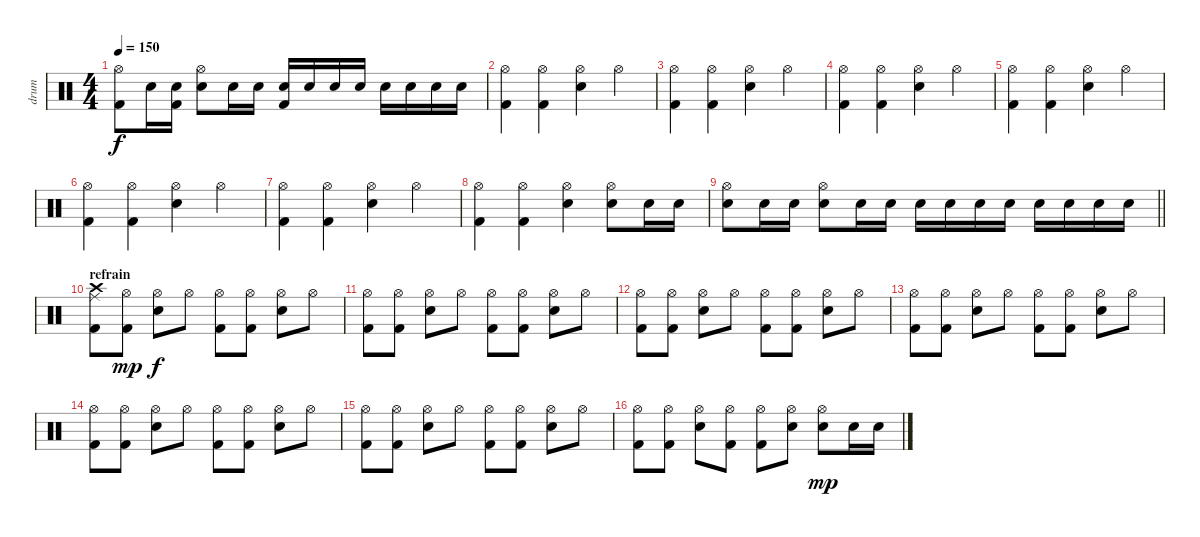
\track ("drum" "drum") {instrument percussion}
\staff {score}
\articulation defaults
\ts (4 4)
\tempo 150
\clef neutral
\ks c
("Hi-Hat (open)" "Kick (hit) 2").8{dy f} "Snare (hit) 2".16 ("Snare (hit) 2" "Kick (hit) 2").16 ("Hi-Hat (open)" "Snare (hit) 2").8 "Snare (hit) 2".16 "Snare (hit) 2".16 ("Snare (hit) 2" "Kick (hit) 2").16 "Snare (hit) 2".16 "Snare (hit) 2".16 "Snare (hit) 2".16 "Snare (hit) 2".16 "Snare (hit) 2".16 "Snare (hit) 2".16 "Snare (hit) 2".16 |
("Hi-Hat (open)" "Kick (hit) 2").4 ("Hi-Hat (open)" "Kick (hit) 2").4 ("Hi-Hat (open)" "Snare (hit) 2").4 "Hi-Hat (open)".4 |
("Hi-Hat (open)" "Kick (hit) 2").4 ("Hi-Hat (open)" "Kick (hit) 2").4 ("Hi-Hat (open)" "Snare (hit) 2").4 "Hi-Hat (open)".4 |
("Hi-Hat (open)" "Kick (hit) 2").4 ("Hi-Hat (open)" "Kick (hit) 2").4 ("Hi-Hat (open)" "Snare (hit) 2").4 "Hi-Hat (open)".4 |
("Hi-Hat (open)" "Kick (hit) 2").4 ("Hi-Hat (open)" "Kick (hit) 2").4 ("Hi-Hat (open)" "Snare (hit) 2").4 "Hi-Hat (open)".4 |
("Hi-Hat (open)" "Kick (hit) 2").4 ("Hi-Hat (open)" "Kick (hit) 2").4 ("Hi-Hat (open)" "Snare (hit) 2").4 "Hi-Hat (open)".4 |
("Hi-Hat (open)" "Kick (hit) 2").4 ("Hi-Hat (open)" "Kick (hit) 2").4 ("Hi-Hat (open)" "Snare (hit) 2").4 "Hi-Hat (open)".4 |
("Hi-Hat (open)" "Kick (hit) 2").4 ("Hi-Hat (open)" "Kick (hit) 2").4 ("Hi-Hat (open)" "Snare (hit) 2").4 ("Hi-Hat (open)" "Snare (hit) 2").8 "Snare (hit) 2".16 "Snare (hit) 2".16 |
\barLineRight lightlight
("Hi-Hat (open)" "Snare (hit) 2").8 "Snare (hit) 2".16 "Snare (hit) 2".16 ("Hi-Hat (open)" "Snare (hit) 2").8 "Snare (hit) 2".16 "Snare (hit) 2".16 "Snare (hit) 2".16 "Snare (hit) 2".16 "Snare (hit) 2".16 "Snare (hit) 2".16 "Snare (hit) 2".16 "Snare (hit) 2".16 "Snare (hit) 2".16 "Snare (hit) 2".16 |
\section ("" "refrain")
("Ride (middle)" "Crash high (hit)" "Kick (hit) 2").8 ("Hi-Hat (open)" "Kick (hit) 2").8{dy mp} ("Hi-Hat (open)" "Snare (hit) 2").8{dy f} "Hi-Hat (open)".8 ("Hi-Hat (open)" "Kick (hit) 2").8 ("Hi-Hat (open)" "Kick (hit) 2").8 ("Hi-Hat (open)" "Snare (hit) 2").8 "Hi-Hat (open)".8 |
("Hi-Hat (open)" "Kick (hit) 2").8 ("Hi-Hat (open)" "Kick (hit) 2").8 ("Hi-Hat (open)" "Snare (hit) 2").8 "Hi-Hat (open)".8 ("Hi-Hat (open)" "Kick (hit) 2").8 ("Hi-Hat (open)" "Kick (hit) 2").8 ("Hi-Hat (open)" "Snare (hit) 2").8 "Hi-Hat (open)".8 |
("Hi-Hat (open)" "Kick (hit) 2").8 ("Hi-Hat (open)" "Kick (hit) 2").8 ("Hi-Hat (open)" "Snare (hit) 2").8 "Hi-Hat (open)".8 ("Hi-Hat (open)" "Kick (hit) 2").8 ("Hi-Hat (open)" "Kick (hit) 2").8 ("Hi-Hat (open)" "Snare (hit) 2").8 "Hi-Hat (open)".8 |
("Hi-Hat (open)" "Kick (hit) 2").8 ("Hi-Hat (open)" "Kick (hit) 2").8 ("Hi-Hat (open)" "Snare (hit) 2").8 "Hi-Hat (open)".8 ("Hi-Hat (open)" "Kick (hit) 2").8 ("Hi-Hat (open)" "Kick (hit) 2").8 ("Hi-Hat (open)" "Snare (hit) 2").8 "Hi-Hat (open)".8 |
("Hi-Hat (open)" "Kick (hit) 2").8 ("Hi-Hat (open)" "Kick (hit) 2").8 ("Hi-Hat (open)" "Snare (hit) 2").8 "Hi-Hat (open)".8 ("Hi-Hat (open)" "Kick (hit) 2").8 ("Hi-Hat (open)" "Kick (hit) 2").8 ("Hi-Hat (open)" "Snare (hit) 2").8 "Hi-Hat (open)".8 |
("Hi-Hat (open)" "Kick (hit) 2").8 ("Hi-Hat (open)" "Kick (hit) 2").8 ("Hi-Hat (open)" "Snare (hit) 2").8 "Hi-Hat (open)".8 ("Hi-Hat (open)" "Kick (hit) 2").8 ("Hi-Hat (open)" "Kick (hit) 2").8 ("Hi-Hat (open)" "Snare (hit) 2").8 "Hi-Hat (open)".8 |
("Hi-Hat (open)" "Kick (hit) 2").8 ("Hi-Hat (open)" "Kick (hit) 2").8 ("Hi-Hat (open)" "Snare (hit) 2").8 ("Hi-Hat (open)" "Kick (hit) 2").8 ("Hi-Hat (open)" "Kick (hit) 2").8 ("Hi-Hat (open)" "Snare (hit) 2").8 ("Hi-Hat (open)" "Snare (hit) 2").8{dy mp} "Snare (hit) 2".16 "Snare (hit) 2".16
